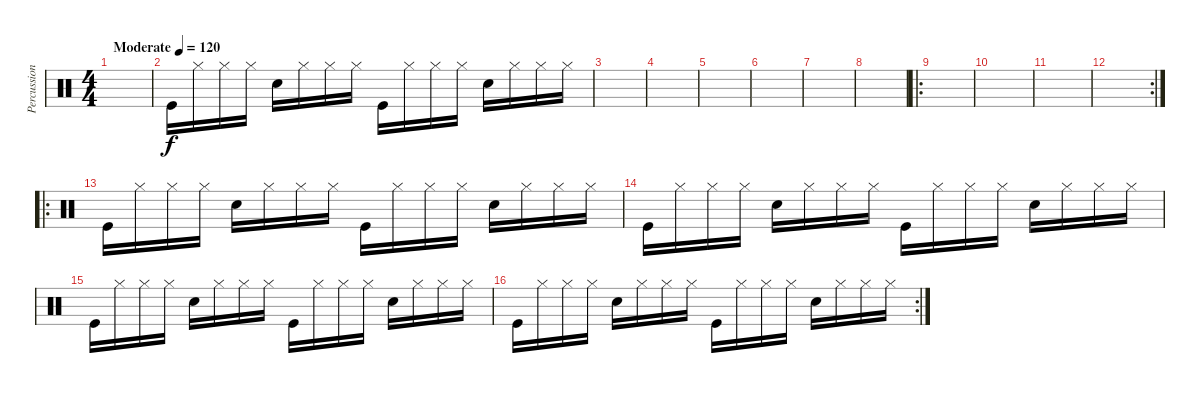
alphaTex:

\track ("Percussion" "Percussion") {instrument percussion}
\staff {score}
\articulation defaults
\ts (4 4)
\tempo (120 "Moderate")
\clef neutral
\ks c
|
"Kick (hit)".16 "Hi-Hat (closed)".16 "Hi-Hat (closed)".16 "Hi-Hat (closed)".16 "Snare (hit) 2".16 "Hi-Hat (closed)".16 "Hi-Hat (closed)".16 "Hi-Hat (closed)".16 "Kick (hit)".16 "Hi-Hat (closed)".16 "Hi-Hat (closed)".16 "Hi-Hat (closed)".16 "Snare (hit) 2".16 "Hi-Hat (closed)".16 "Hi-Hat (closed)".16 "Hi-Hat (closed)".16 |
|
|
|
|
|
|
\ro
|
|
|
\rc 2
|
\ro "Kick (hit)".16 "Hi-Hat (closed)".16 "Hi-Hat (closed)".16 "Hi-Hat (closed)".16 "Snare (hit) 2".16 "Hi-Hat (closed)".16 "Hi-Hat (closed)".16 "Hi-Hat (closed)".16 "Kick (hit)".16 "Hi-Hat (closed)".16 "Hi-Hat (closed)".16 "Hi-Hat (closed)".16 "Snare (hit) 2".16 "Hi-Hat (closed)".16 "Hi-Hat (closed)".16 "Hi-Hat (closed)".16
|
"Kick (hit)".16 "Hi-Hat (closed)".16 "Hi-Hat (closed)".16 "Hi-Hat (closed)".16 "Snare (hit) 2".16 "Hi-Hat (closed)".16 "Hi-Hat (closed)".16 "Hi-Hat (closed)".16 "Kick (hit)".16 "Hi-Hat (closed)".16 "Hi-Hat (closed)".16 "Hi-Hat (closed)".16 "Snare (hit) 2".16 "Hi-Hat (closed)".16 "Hi-Hat (closed)".16 "Hi-Hat (closed)".16 |
"Kick (hit)".16 "Hi-Hat (closed)".16 "Hi-Hat (closed)".16 "Hi-Hat (closed)".16 "Snare (hit) 2".16 "Hi-Hat (closed)".16 "Hi-Hat (closed)".16 "Hi-Hat (closed)".16 "Kick (hit)".16 "Hi-Hat (closed)".16 "Hi-Hat (closed)".16 "Hi-Hat (closed)".16 "Snare (hit) 2".16 "Hi-Hat (closed)".16 "Hi-Hat (closed)".16 "Hi-Hat (closed)".16 |
\rc 2 "Kick (hit)".16 "Hi-Hat (closed)".16 "Hi-Hat (closed)".16 "Hi-Hat (closed)".16 "Snare (hit) 2".16 "Hi-Hat (closed)".16 "Hi-Hat (closed)".16 "Hi-Hat (closed)".16 "Kick (hit)".16 "Hi-Hat (closed)".16 "Hi-Hat (closed)".16 "Hi-Hat (closed)".16 "Snare (hit) 2".16 "Hi-Hat (closed)".16 "Hi-Hat (closed)".16 "Hi-Hat (closed)".16
